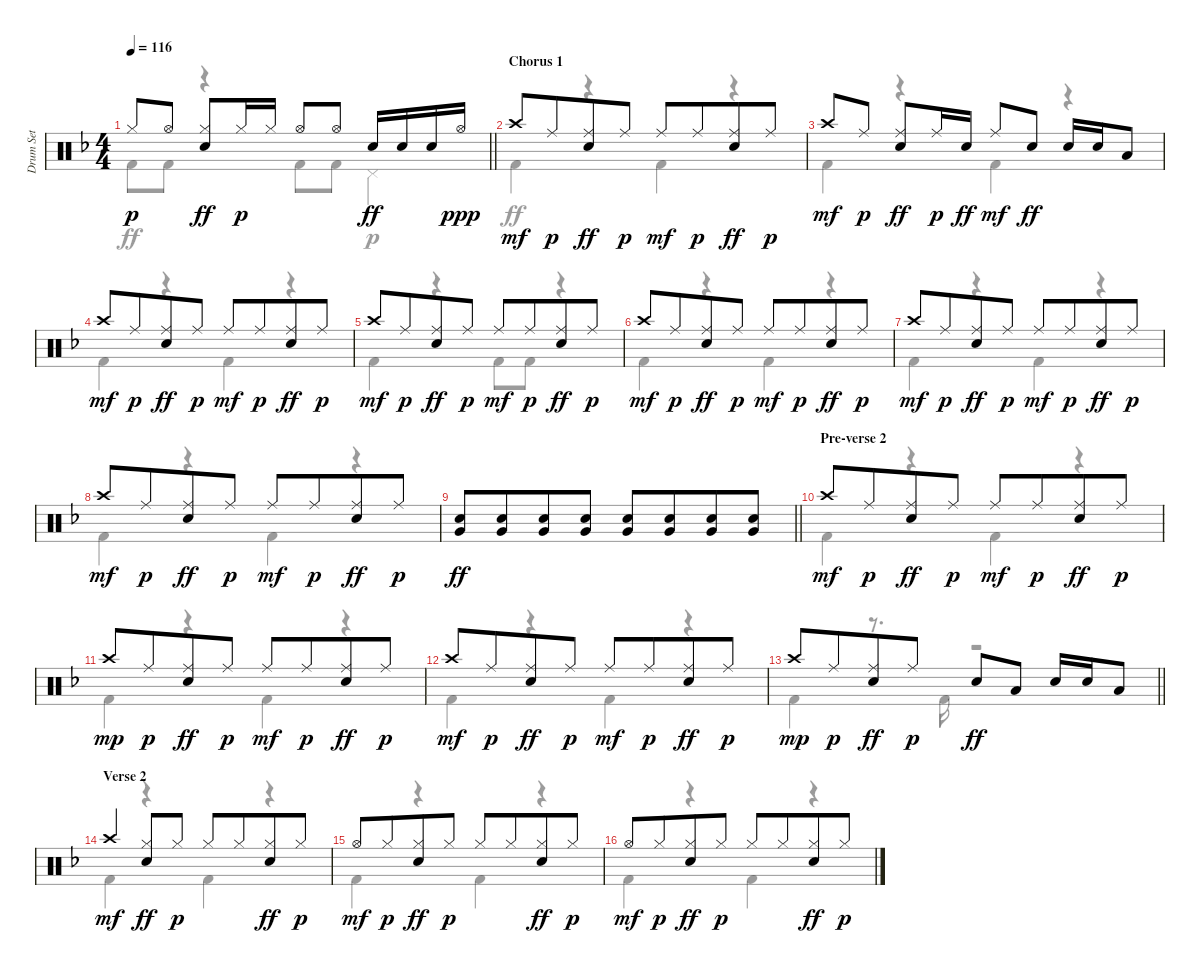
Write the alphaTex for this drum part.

\track ("Drum Set" "Drum Set") {instrument percussion}
\staff {score}
\articulation defaults
\voice
\ts (4 4)
\tempo 116
\clef neutral
\barLineRight lightlight
\ks f "Hi-Hat (closed)".8{dy p} "Hi-Hat (open)".8
("Hi-Hat (closed)" "Electric Snare (hit)").8{dy ff} "Hi-Hat (closed)".16{dy p} "Hi-Hat (closed)".16 "Hi-Hat (open)".8 "Hi-Hat (open)".8 "Electric Snare (hit)".16{dy ff} "Electric Snare (hit)".16 "Electric Snare (hit)".16 "Hi-Hat (open)".16{dy ppp} |
\section ("" "Chorus 1")
"Crash high (hit)".8{dy mf} "Ride (middle)".8{dy p beam merge} ("Ride (middle)" "Electric Snare (hit)").8{dy ff} "Ride (middle)".8{dy p} "Ride (middle)".8{dy mf} "Ride (middle)".8{dy p beam merge} ("Ride (middle)" "Electric Snare (hit)").8{dy ff} "Ride (middle)".8{dy p} |
"Crash high (hit)".8{dy mf} "Ride (middle)".8{dy p beam split} ("Ride (middle)" "Electric Snare (hit)").8{dy ff} "Ride (middle)".16{dy p} "Electric Snare (hit)".16{dy ff} "Ride (middle)".8{dy mf} "Electric Snare (hit)".8{dy ff} "Electric Snare (hit)".16 "Electric Snare (hit)".16 "Low Tom (hit)".8 |
"Crash high (hit)".8{dy mf} "Ride (middle)".8{dy p beam merge} ("Ride (middle)" "Electric Snare (hit)").8{dy ff} "Ride (middle)".8{dy p} "Ride (middle)".8{dy mf} "Ride (middle)".8{dy p beam merge} ("Ride (middle)" "Electric Snare (hit)").8{dy ff} "Ride (middle)".8{dy p} |
"Crash high (hit)".8{dy mf} "Ride (middle)".8{dy p beam merge} ("Ride (middle)" "Electric Snare (hit)").8{dy ff} "Ride (middle)".8{dy p} "Ride (middle)".8{dy mf} "Ride (middle)".8{dy p beam merge} ("Ride (middle)" "Electric Snare (hit)").8{dy ff} "Ride (middle)".8{dy p} |
"Crash high (hit)".8{dy mf} "Ride (middle)".8{dy p beam merge} ("Ride (middle)" "Electric Snare (hit)").8{dy ff} "Ride (middle)".8{dy p} "Ride (middle)".8{dy mf} "Ride (middle)".8{dy p beam merge} ("Ride (middle)" "Electric Snare (hit)").8{dy ff} "Ride (middle)".8{dy p} |
"Crash high (hit)".8{dy mf} "Ride (middle)".8{dy p beam merge} ("Ride (middle)" "Electric Snare (hit)").8{dy ff} "Ride (middle)".8{dy p} "Ride (middle)".8{dy mf} "Ride (middle)".8{dy p beam merge} ("Ride (middle)" "Electric Snare (hit)").8{dy ff} "Ride (middle)".8{dy p} |
"Crash high (hit)".8{dy mf} "Ride (middle)".8{dy p beam merge} ("Ride (middle)" "Electric Snare (hit)").8{dy ff} "Ride (middle)".8{dy p} "Ride (middle)".8{dy mf} "Ride (middle)".8{dy p beam merge} ("Ride (middle)" "Electric Snare (hit)").8{dy ff} "Ride (middle)".8{dy p} |
\barLineRight lightlight
("Electric Snare (hit)" "Very Low Tom (hit)").8{dy ff beam Up} ("Electric Snare (hit)" "Very Low Tom (hit)").8{beam Up beam merge} ("Electric Snare (hit)" "Very Low Tom (hit)").8{beam Up} ("Electric Snare (hit)" "Very Low Tom (hit)").8{beam Up} ("Electric Snare (hit)" "Very Low Tom (hit)").8{beam Up} ("Electric Snare (hit)" "Very Low Tom (hit)").8{beam Up beam merge} ("Electric Snare (hit)" "Very Low Tom (hit)").8{beam Up} ("Electric Snare (hit)" "Very Low Tom (hit)").8{beam Up} |
\section ("" "Pre-verse 2")
"Crash high (hit)".8{dy mf} "Ride (middle)".8{dy p beam merge} ("Ride (middle)" "Electric Snare (hit)").8{dy ff} "Ride (middle)".8{dy p} "Ride (middle)".8{dy mf} "Ride (middle)".8{dy p beam merge} ("Ride (middle)" "Electric Snare (hit)").8{dy ff} "Ride (middle)".8{dy p} |
"Crash high (hit)".8{dy mp} "Ride (middle)".8{dy p beam merge} ("Ride (middle)" "Electric Snare (hit)").8{dy ff} "Ride (middle)".8{dy p} "Ride (middle)".8{dy mf} "Ride (middle)".8{dy p beam merge} ("Ride (middle)" "Electric Snare (hit)").8{dy ff} "Ride (middle)".8{dy p} |
"Crash high (hit)".8{dy mf} "Ride (middle)".8{dy p beam merge} ("Ride (middle)" "Electric Snare (hit)").8{dy ff} "Ride (middle)".8{dy p} "Ride (middle)".8{dy mf} "Ride (middle)".8{dy p beam merge} ("Ride (middle)" "Electric Snare (hit)").8{dy ff} "Ride (middle)".8{dy p} |
\barLineRight lightlight "Crash high (hit)".8{dy mp} "Ride (middle)".8{dy p beam merge}
("Ride (middle)" "Electric Snare (hit)").8{dy ff} "Ride (middle)".8{dy p} "Electric Snare (hit)".8{dy ff} "Low Tom (hit)".8 "Electric Snare (hit)".16 "Electric Snare (hit)".16 "Low Tom (hit)".8 |
\section ("" "Verse 2")
"Crash high (hit)".4{dy mf} ("Hi-Hat (closed)" "Electric Snare (hit)").8{dy ff} "Hi-Hat (closed)".8{dy p} "Hi-Hat (closed)".8 "Hi-Hat (closed)".8{beam merge} ("Hi-Hat (closed)" "Electric Snare (hit)").8{dy ff} "Hi-Hat (closed)".8{dy p} |
"Hi-Hat (open)".8{dy mf} "Hi-Hat (closed)".8{dy p beam merge} ("Hi-Hat (closed)" "Electric Snare (hit)").8{dy ff} "Hi-Hat (closed)".8{dy p} "Hi-Hat (closed)".8 "Hi-Hat (closed)".8{beam merge} ("Hi-Hat (closed)" "Electric Snare (hit)").8{dy ff} "Hi-Hat (closed)".8{dy p} |
"Hi-Hat (open)".8{dy mf} "Hi-Hat (closed)".8{dy p beam merge} ("Hi-Hat (closed)" "Electric Snare (hit)").8{dy ff} "Hi-Hat (closed)".8{dy p} "Hi-Hat (closed)".8 "Hi-Hat (closed)".8{beam merge} ("Hi-Hat (closed)" "Electric Snare (hit)").8{dy ff} "Hi-Hat (closed)".8{dy p}
\voice
\clef neutral
\ottava regular
\simile none
\barLineRight lightlight
\ks f "Kick (hit) 2".8{dy ff} "Kick (hit) 2".8
r.4 "Kick (hit) 2".8 "Kick (hit) 2".8 "Pedal Hi-Hat (hit)".4{dy p} |
"Kick (hit) 2".4{dy ff} r.4 "Kick (hit) 2".4 r.4 |
"Kick (hit) 2".4 r.4 "Kick (hit) 2".4 r.4 |
"Kick (hit) 2".4 r.4 "Kick (hit) 2".4 r.4 |
"Kick (hit) 2".4 r.4 "Kick (hit) 2".8 "Kick (hit) 2".8 r.4 |
"Kick (hit) 2".4 r.4 "Kick (hit) 2".4 r.4 |
"Kick (hit) 2".4 r.4 "Kick (hit) 2".4 r.4 |
"Kick (hit) 2".4 r.4 "Kick (hit) 2".4 r.4 |
\barLineRight lightlight
|
"Kick (hit) 2".4 r.4 "Kick (hit) 2".4 r.4 |
"Kick (hit) 2".4 r.4 "Kick (hit) 2".4 r.4 |
"Kick (hit) 2".4 r.4 "Kick (hit) 2".4 r.4 |
\barLineRight lightlight "Kick (hit) 2".4
r.8{d} "Kick (hit) 2".16 r.2 |
"Kick (hit) 2".4 r.4 "Kick (hit) 2".4 r.4 |
"Kick (hit) 2".4 r.4 "Kick (hit) 2".4 r.4 |
"Kick (hit) 2".4 r.4 "Kick (hit) 2".4 r.4
